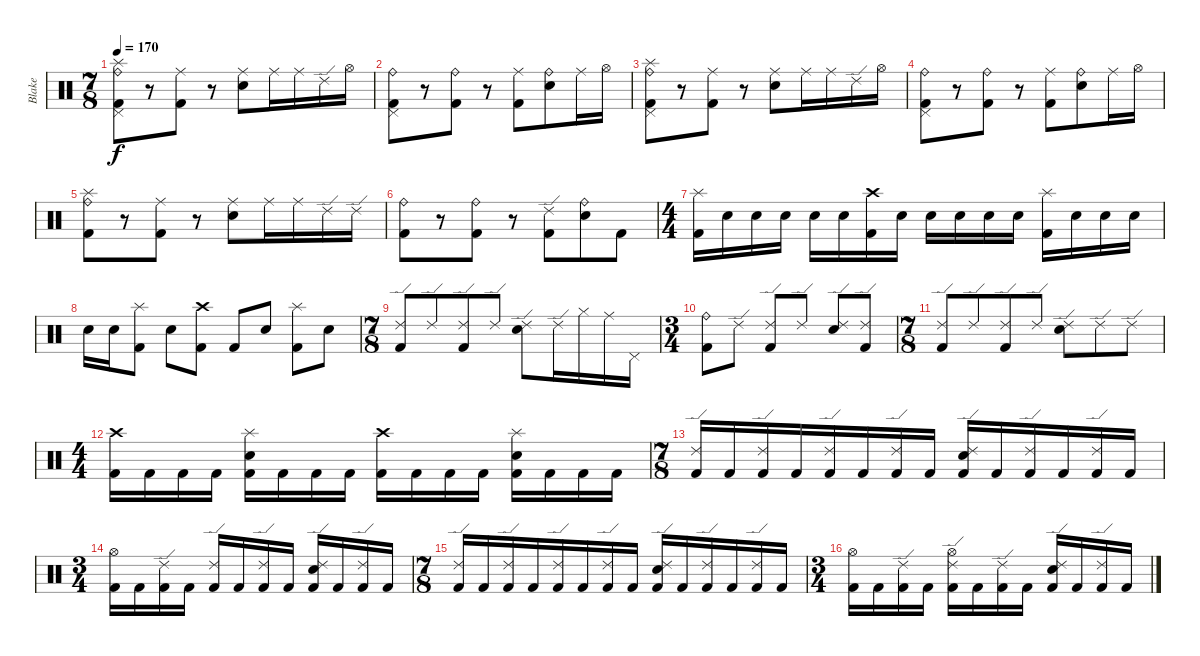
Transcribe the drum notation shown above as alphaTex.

\track ("Blake" "Blake") {instrument percussion}
\staff {score}
\articulation defaults
\ts (7 8)
\tempo 170
\clef neutral
\ks c
("Splash (hit)" "Ride (bell)" "Pedal Hi-Hat (hit)" "Kick (hit) 2").8{dy f} r.8 ("Ride (middle)" "Kick (hit) 2").8 r.8 ("Ride (middle)" "Snare (hit) 2").8 "Ride (middle)".16 "Ride (middle)".16 "Ride (edge) 2".16 "Hi-Hat (open)".16 |
("Ride (bell)" "Pedal Hi-Hat (hit)" "Kick (hit) 2").8 r.8 ("Ride (bell)" "Kick (hit) 2").8 r.8 ("Ride (middle)" "Kick (hit) 2").8 ("Ride (bell)" "Snare (hit) 2").8 "Ride (middle)".16 "Hi-Hat (open)".16 |
("Splash (hit)" "Ride (bell)" "Pedal Hi-Hat (hit)" "Kick (hit) 2").8 r.8 ("Ride (middle)" "Kick (hit) 2").8 r.8 ("Ride (middle)" "Snare (hit) 2").8 "Ride (middle)".16 "Ride (middle)".16 "Ride (edge) 2".16 "Hi-Hat (open)".16 |
("Ride (bell)" "Pedal Hi-Hat (hit)" "Kick (hit) 2").8 r.8 ("Ride (bell)" "Kick (hit) 2").8 r.8 ("Ride (middle)" "Kick (hit) 2").8 ("Ride (bell)" "Snare (hit) 2").8 "Ride (middle)".16 "Hi-Hat (open)".16 |
("Splash (hit)" "Ride (bell)" "Kick (hit) 2").8 r.8 ("Ride (middle)" "Kick (hit) 2").8 r.8 ("Ride (middle)" "Snare (hit) 2").8 "Ride (middle)".16 "Ride (middle)".16 "Ride (edge) 2".16 "Ride (edge) 2".16 |
("Ride (bell)" "Kick (hit) 2").8 r.8 ("Ride (bell)" "Kick (hit) 2").8 r.8 ("Ride (edge) 2" "Kick (hit) 2").8 ("Ride (bell)" "Snare (hit) 2").8 "Kick (hit) 2".8 |
\ts (4 4)
("Splash (hit)" "Kick (hit) 2").16 "Snare (hit) 2".16 "Snare (hit) 2".16 "Snare (hit) 2".16 "Snare (hit) 2".16 "Snare (hit) 2".16 ("Crash high (hit)" "Kick (hit) 2").16 "Snare (hit) 2".16 "Snare (hit) 2".16 "Snare (hit) 2".16 "Snare (hit) 2".16 "Snare (hit) 2".16 ("Splash (hit)" "Kick (hit) 2").16 "Snare (hit) 2".16 "Snare (hit) 2".16 "Snare (hit) 2".16 |
"Snare (hit) 2".16 "Snare (hit) 2".16 ("Splash (hit)" "Kick (hit) 2").8 "Snare (hit) 2".8 ("Crash high (hit)" "Kick (hit) 2").8 "Kick (hit) 2".8 "Snare (hit) 2".8 ("Splash (hit)" "Kick (hit) 2").8 "Snare (hit) 2".8 |
\ts (7 8)
("Ride (edge) 2" "Kick (hit) 2").8 "Ride (edge) 2".8 ("Ride (edge) 2" "Kick (hit) 2").8 "Ride (edge) 2".8 ("Ride (edge) 2" "Snare (hit) 2").8 "Ride (edge) 2".16 "Hi-Hat (closed)".16 "Ride (middle)".16 "Pedal Hi-Hat (hit)".16 |
\ts (3 4)
("Ride (bell)" "Kick (hit) 2").8 "Ride (edge) 2".8 ("Ride (edge) 2" "Kick (hit) 2").8 "Ride (edge) 2".8 ("Ride (edge) 2" "Snare (hit) 2").8 ("Ride (edge) 2" "Kick (hit) 2").8 |
\ts (7 8)
("Ride (edge) 2" "Kick (hit) 2").8 "Ride (edge) 2".8 ("Ride (edge) 2" "Kick (hit) 2").8 "Ride (edge) 2".8 ("Ride (edge) 2" "Snare (hit) 2").8 "Ride (edge) 2".8 "Ride (edge) 2".8 |
\ts (4 4)
("Crash high (hit)" "Kick (hit) 2").16 "Kick (hit) 2".16 "Kick (hit) 2".16 "Kick (hit) 2".16 ("Splash (hit)" "Snare (hit) 2" "Kick (hit) 2").16 "Kick (hit) 2".16 "Kick (hit) 2".16 "Kick (hit) 2".16 ("Crash high (hit)" "Kick (hit) 2").16 "Kick (hit) 2".16 "Kick (hit) 2".16 "Kick (hit) 2".16 ("Splash (hit)" "Snare (hit) 2" "Kick (hit) 2").16 "Kick (hit) 2".16 "Kick (hit) 2".16 "Kick (hit) 2".16 |
\ts (7 8)
("Ride (edge) 2" "Kick (hit) 2").16 "Kick (hit) 2".16 ("Ride (edge) 2" "Kick (hit) 2").16 "Kick (hit) 2".16 ("Ride (edge) 2" "Kick (hit) 2").16 "Kick (hit) 2".16 ("Ride (edge) 2" "Kick (hit) 2").16 "Kick (hit) 2".16 ("Ride (edge) 2" "Snare (hit) 2" "Kick (hit) 2").16 "Kick (hit) 2".16 ("Ride (edge) 2" "Kick (hit) 2").16 "Kick (hit) 2".16 ("Ride (edge) 2" "Kick (hit) 2").16 "Kick (hit) 2".16 |
\ts (3 4)
("Hi-Hat (open)" "Kick (hit) 2").16 "Kick (hit) 2".16 ("Ride (edge) 2" "Kick (hit) 2").16 "Kick (hit) 2".16 ("Ride (edge) 2" "Kick (hit) 2").16 "Kick (hit) 2".16 ("Ride (edge) 2" "Kick (hit) 2").16 "Kick (hit) 2".16 ("Ride (edge) 2" "Snare (hit) 2" "Kick (hit) 2").16 "Kick (hit) 2".16 ("Ride (edge) 2" "Kick (hit) 2").16 "Kick (hit) 2".16 |
\ts (7 8)
("Ride (edge) 2" "Kick (hit) 2").16 "Kick (hit) 2".16 ("Ride (edge) 2" "Kick (hit) 2").16 "Kick (hit) 2".16 ("Ride (edge) 2" "Kick (hit) 2").16 "Kick (hit) 2".16 ("Ride (edge) 2" "Kick (hit) 2").16 "Kick (hit) 2".16 ("Ride (edge) 2" "Snare (hit) 2" "Kick (hit) 2").16 "Kick (hit) 2".16 ("Ride (edge) 2" "Kick (hit) 2").16 "Kick (hit) 2".16 ("Ride (edge) 2" "Kick (hit) 2").16 "Kick (hit) 2".16 |
\ts (3 4)
("Hi-Hat (open)" "Kick (hit) 2").16 "Kick (hit) 2".16 ("Ride (edge) 2" "Kick (hit) 2").16 "Kick (hit) 2".16 ("Ride (edge) 2" "Hi-Hat (open)" "Kick (hit) 2").16 "Kick (hit) 2".16 ("Ride (edge) 2" "Kick (hit) 2").16 "Kick (hit) 2".16 ("Ride (edge) 2" "Snare (hit) 2" "Kick (hit) 2").16 "Kick (hit) 2".16 ("Ride (edge) 2" "Kick (hit) 2").16 "Kick (hit) 2".16
